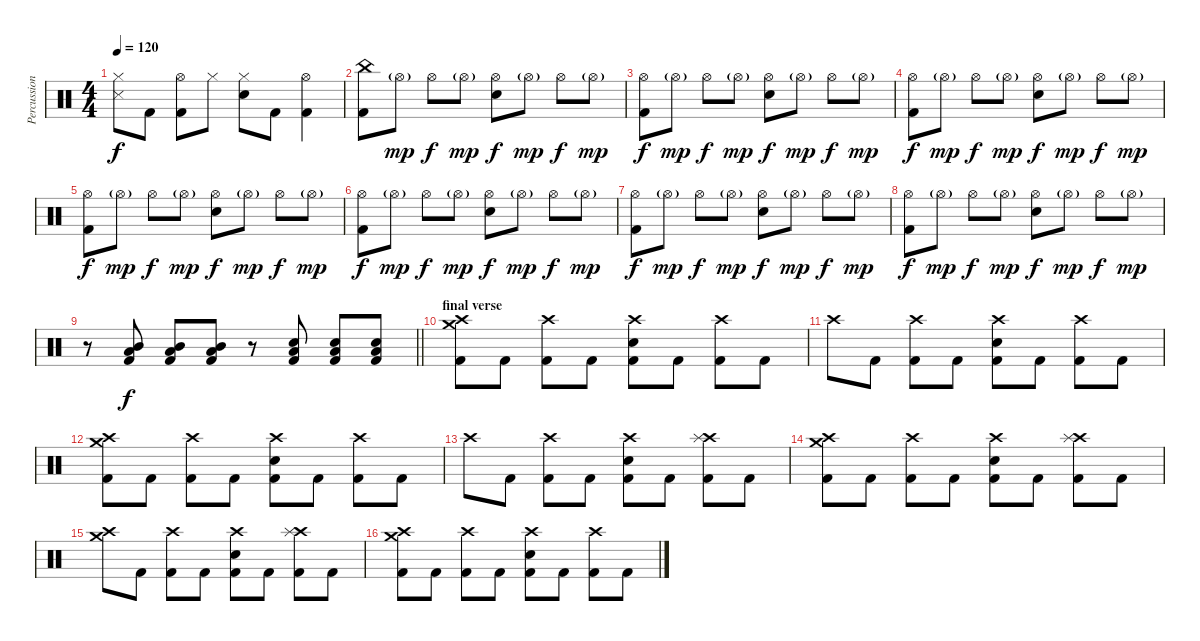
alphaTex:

\track ("Percussion" "Percussion") {instrument percussion}
\staff {score}
\articulation defaults
\ts (4 4)
\tempo 120
\clef neutral
\ks c
("Snare (side stick) 3" "Hi-Hat (closed)").8{dy f} "Kick (hit) 2".8 ("Hi-Hat (open)" "Kick (hit) 2").8 "Hi-Hat (closed)".8 ("Electric Snare (hit)" "Hi-Hat (closed)").8 "Kick (hit) 2".8 ("Hi-Hat (open)" "Kick (hit) 2").4 |
("China (hit)" "Kick (hit) 2").8 "Hi-Hat (open)"{g}.8{dy mp} "Hi-Hat (open)".8{dy f} "Hi-Hat (open)"{g}.8{dy mp} ("Electric Snare (hit)" "Hi-Hat (open)").8{dy f} "Hi-Hat (open)"{g}.8{dy mp} "Hi-Hat (open)".8{dy f} "Hi-Hat (open)"{g}.8{dy mp} |
("Hi-Hat (open)" "Kick (hit) 2").8{dy f} "Hi-Hat (open)"{g}.8{dy mp} "Hi-Hat (open)".8{dy f} "Hi-Hat (open)"{g}.8{dy mp} ("Electric Snare (hit)" "Hi-Hat (open)").8{dy f} "Hi-Hat (open)"{g}.8{dy mp} "Hi-Hat (open)".8{dy f} "Hi-Hat (open)"{g}.8{dy mp} |
("Hi-Hat (open)" "Kick (hit) 2").8{dy f} "Hi-Hat (open)"{g}.8{dy mp} "Hi-Hat (open)".8{dy f} "Hi-Hat (open)"{g}.8{dy mp} ("Electric Snare (hit)" "Hi-Hat (open)").8{dy f} "Hi-Hat (open)"{g}.8{dy mp} "Hi-Hat (open)".8{dy f} "Hi-Hat (open)"{g}.8{dy mp} |
("Hi-Hat (open)" "Kick (hit) 2").8{dy f} "Hi-Hat (open)"{g}.8{dy mp} "Hi-Hat (open)".8{dy f} "Hi-Hat (open)"{g}.8{dy mp} ("Electric Snare (hit)" "Hi-Hat (open)").8{dy f} "Hi-Hat (open)"{g}.8{dy mp} "Hi-Hat (open)".8{dy f} "Hi-Hat (open)"{g}.8{dy mp} |
("Hi-Hat (open)" "Kick (hit) 2").8{dy f} "Hi-Hat (open)"{g}.8{dy mp} "Hi-Hat (open)".8{dy f} "Hi-Hat (open)"{g}.8{dy mp} ("Electric Snare (hit)" "Hi-Hat (open)").8{dy f} "Hi-Hat (open)"{g}.8{dy mp} "Hi-Hat (open)".8{dy f} "Hi-Hat (open)"{g}.8{dy mp} |
("Hi-Hat (open)" "Kick (hit) 2").8{dy f} "Hi-Hat (open)"{g}.8{dy mp} "Hi-Hat (open)".8{dy f} "Hi-Hat (open)"{g}.8{dy mp} ("Electric Snare (hit)" "Hi-Hat (open)").8{dy f} "Hi-Hat (open)"{g}.8{dy mp} "Hi-Hat (open)".8{dy f} "Hi-Hat (open)"{g}.8{dy mp} |
("Hi-Hat (open)" "Kick (hit) 2").8{dy f} "Hi-Hat (open)"{g}.8{dy mp} "Hi-Hat (open)".8{dy f} "Hi-Hat (open)"{g}.8{dy mp} ("Electric Snare (hit)" "Hi-Hat (open)").8{dy f} "Hi-Hat (open)"{g}.8{dy mp} "Hi-Hat (open)".8{dy f} "Hi-Hat (open)"{g}.8{dy mp} |
\barLineRight lightlight
r.8 ("Low Tom (hit)" "Mid Tom (hit)" "Kick (hit) 2").8{dy f} ("Low Tom (hit)" "Mid Tom (hit)" "Kick (hit) 2").8 ("Low Tom (hit)" "Mid Tom (hit)" "Kick (hit) 2").8 r.8 ("Electric Snare (hit)" "Low Tom (hit)" "Kick (hit) 2").8 ("Electric Snare (hit)" "Low Tom (hit)" "Kick (hit) 2").8 ("Electric Snare (hit)" "Low Tom (hit)" "Kick (hit) 2").8 |
\section ("" "final verse")
("Crash high (hit)" "Crash medium (hit)" "Kick (hit) 2").8 "Kick (hit) 2".8 ("Crash high (hit)" "Kick (hit) 2").8 "Kick (hit) 2".8 ("Crash high (hit)" "Electric Snare (hit)" "Kick (hit) 2").8 "Kick (hit) 2".8 ("Crash high (hit)" "Kick (hit) 2").8 "Kick (hit) 2".8 |
"Crash high (hit)".8 "Kick (hit) 2".8 ("Crash high (hit)" "Kick (hit) 2").8 "Kick (hit) 2".8 ("Crash high (hit)" "Electric Snare (hit)" "Kick (hit) 2").8 "Kick (hit) 2".8 ("Crash high (hit)" "Kick (hit) 2").8 "Kick (hit) 2".8 |
("Crash high (hit)" "Crash medium (hit)" "Kick (hit) 2").8 "Kick (hit) 2".8 ("Crash high (hit)" "Kick (hit) 2").8 "Kick (hit) 2".8 ("Crash high (hit)" "Electric Snare (hit)" "Kick (hit) 2").8 "Kick (hit) 2".8 ("Crash high (hit)" "Kick (hit) 2").8 "Kick (hit) 2".8 |
"Crash high (hit)".8 "Kick (hit) 2".8 ("Crash high (hit)" "Kick (hit) 2").8 "Kick (hit) 2".8 ("Crash high (hit)" "Electric Snare (hit)" "Kick (hit) 2").8 "Kick (hit) 2".8 ("Crash high (hit)" "Splash (hit)" "Kick (hit) 2").8 "Kick (hit) 2".8 |
("Crash high (hit)" "Crash medium (hit)" "Kick (hit) 2").8 "Kick (hit) 2".8 ("Crash high (hit)" "Kick (hit) 2").8 "Kick (hit) 2".8 ("Crash high (hit)" "Electric Snare (hit)" "Kick (hit) 2").8 "Kick (hit) 2".8 ("Crash high (hit)" "Splash (hit)" "Kick (hit) 2").8 "Kick (hit) 2".8 |
("Crash high (hit)" "Crash medium (hit)").8 "Kick (hit) 2".8 ("Crash high (hit)" "Kick (hit) 2").8 "Kick (hit) 2".8 ("Crash high (hit)" "Electric Snare (hit)" "Kick (hit) 2").8 "Kick (hit) 2".8 ("Crash high (hit)" "Splash (hit)" "Kick (hit) 2").8 "Kick (hit) 2".8 |
("Crash high (hit)" "Crash medium (hit)" "Kick (hit) 2").8 "Kick (hit) 2".8 ("Crash high (hit)" "Kick (hit) 2").8 "Kick (hit) 2".8 ("Crash high (hit)" "Electric Snare (hit)" "Kick (hit) 2").8 "Kick (hit) 2".8 ("Crash high (hit)" "Kick (hit) 2").8 "Kick (hit) 2".8
